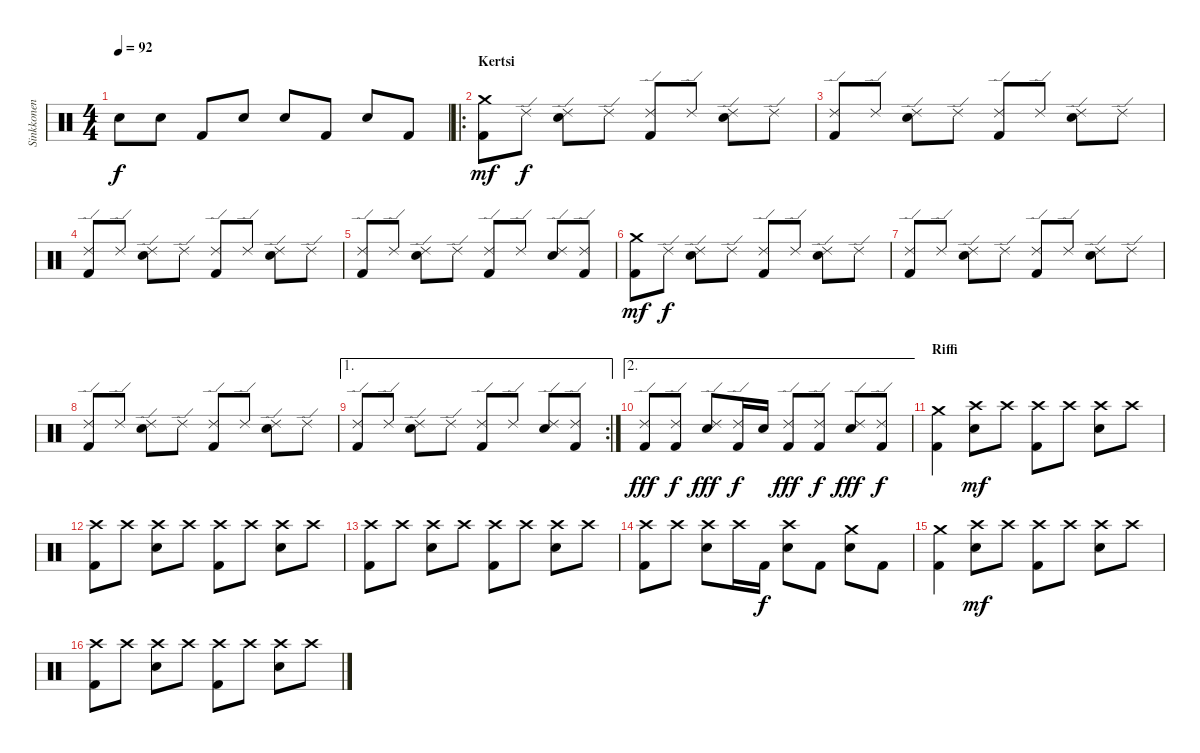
\track ("Sinkkonen" "Sinkkonen") {instrument percussion}
\staff {score}
\articulation defaults
\ts (4 4)
\tempo 92
\clef neutral
\ks c "Snare (hit) 2".8{dy f} "Snare (hit) 2".8 "Kick (hit) 2".8 "Snare (hit) 2".8 "Snare (hit) 2".8 "Kick (hit) 2".8 "Snare (hit) 2".8 "Kick (hit) 2".8
|
\ro
\section ("" "Kertsi")
("Kick (hit) 2" "Crash medium (hit)").8{dy mf} "Ride (edge) 2".8{dy f} ("Ride (edge) 2" "Snare (hit) 2").8 "Ride (edge) 2".8 ("Kick (hit) 2" "Ride (edge) 2").8 "Ride (edge) 2".8 ("Ride (edge) 2" "Snare (hit) 2").8 "Ride (edge) 2".8 |
("Kick (hit) 2" "Ride (edge) 2").8 "Ride (edge) 2".8 ("Ride (edge) 2" "Snare (hit) 2").8 "Ride (edge) 2".8 ("Kick (hit) 2" "Ride (edge) 2").8 "Ride (edge) 2".8 ("Ride (edge) 2" "Snare (hit) 2").8 "Ride (edge) 2".8 |
("Kick (hit) 2" "Ride (edge) 2").8 "Ride (edge) 2".8 ("Ride (edge) 2" "Snare (hit) 2").8 "Ride (edge) 2".8 ("Kick (hit) 2" "Ride (edge) 2").8 "Ride (edge) 2".8 ("Ride (edge) 2" "Snare (hit) 2").8 "Ride (edge) 2".8 |
("Kick (hit) 2" "Ride (edge) 2").8 "Ride (edge) 2".8 ("Ride (edge) 2" "Snare (hit) 2").8 "Ride (edge) 2".8 ("Kick (hit) 2" "Ride (edge) 2").8 "Ride (edge) 2".8 ("Ride (edge) 2" "Snare (hit) 2").8 ("Kick (hit) 2" "Ride (edge) 2").8 |
("Kick (hit) 2" "Crash medium (hit)").8{dy mf} "Ride (edge) 2".8{dy f} ("Ride (edge) 2" "Snare (hit) 2").8 "Ride (edge) 2".8 ("Kick (hit) 2" "Ride (edge) 2").8 "Ride (edge) 2".8 ("Ride (edge) 2" "Snare (hit) 2").8 "Ride (edge) 2".8 |
("Kick (hit) 2" "Ride (edge) 2").8 "Ride (edge) 2".8 ("Ride (edge) 2" "Snare (hit) 2").8 "Ride (edge) 2".8 ("Kick (hit) 2" "Ride (edge) 2").8 "Ride (edge) 2".8 ("Ride (edge) 2" "Snare (hit) 2").8 "Ride (edge) 2".8 |
("Kick (hit) 2" "Ride (edge) 2").8 "Ride (edge) 2".8 ("Ride (edge) 2" "Snare (hit) 2").8 "Ride (edge) 2".8 ("Kick (hit) 2" "Ride (edge) 2").8 "Ride (edge) 2".8 ("Ride (edge) 2" "Snare (hit) 2").8 "Ride (edge) 2".8 |
\ae 1
\rc 2
("Kick (hit) 2" "Ride (edge) 2").8 "Ride (edge) 2".8 ("Ride (edge) 2" "Snare (hit) 2").8 "Ride (edge) 2".8 ("Kick (hit) 2" "Ride (edge) 2").8 "Ride (edge) 2".8 ("Ride (edge) 2" "Snare (hit) 2").8 ("Kick (hit) 2" "Ride (edge) 2").8 |
\ae 2
("Kick (hit) 2" "Ride (edge) 2").8{dy fff} ("Kick (hit) 2" "Ride (edge) 2").8{dy f} ("Ride (edge) 2" "Snare (hit) 2").8{dy fff} ("Kick (hit) 2" "Ride (edge) 2").16{dy f} "Snare (hit) 2".16 ("Kick (hit) 2" "Ride (edge) 2").8{dy fff} ("Kick (hit) 2" "Ride (edge) 2").8{dy f} ("Ride (edge) 2" "Snare (hit) 2").8{dy fff} ("Kick (hit) 2" "Ride (edge) 2").8{dy f} |
\section ("" "Riffi")
("Kick (hit) 2" "Crash medium (hit)").4 ("Crash high (hit)" "Snare (hit) 2").8{dy mf} "Crash high (hit)".8 ("Kick (hit) 2" "Crash high (hit)").8 "Crash high (hit)".8 ("Crash high (hit)" "Snare (hit) 2").8 "Crash high (hit)".8 |
("Kick (hit) 2" "Crash high (hit)").8 "Crash high (hit)".8 ("Crash high (hit)" "Snare (hit) 2").8 "Crash high (hit)".8 ("Kick (hit) 2" "Crash high (hit)").8 "Crash high (hit)".8 ("Crash high (hit)" "Snare (hit) 2").8 "Crash high (hit)".8 |
("Kick (hit) 2" "Crash high (hit)").8 "Crash high (hit)".8 ("Crash high (hit)" "Snare (hit) 2").8 "Crash high (hit)".8 ("Kick (hit) 2" "Crash high (hit)").8 "Crash high (hit)".8 ("Crash high (hit)" "Snare (hit) 2").8 "Crash high (hit)".8 |
("Kick (hit) 2" "Crash high (hit)").8 "Crash high (hit)".8 ("Crash high (hit)" "Snare (hit) 2").8 "Crash high (hit)".16 "Kick (hit) 2".16{dy f} ("Crash high (hit)" "Snare (hit) 2").8 "Kick (hit) 2".8 ("Crash medium (hit)" "Snare (hit) 2").8 "Kick (hit) 2".8 |
("Kick (hit) 2" "Crash medium (hit)").4 ("Crash high (hit)" "Snare (hit) 2").8{dy mf} "Crash high (hit)".8 ("Kick (hit) 2" "Crash high (hit)").8 "Crash high (hit)".8 ("Crash high (hit)" "Snare (hit) 2").8 "Crash high (hit)".8 |
("Kick (hit) 2" "Crash high (hit)").8 "Crash high (hit)".8 ("Crash high (hit)" "Snare (hit) 2").8 "Crash high (hit)".8 ("Kick (hit) 2" "Crash high (hit)").8 "Crash high (hit)".8 ("Crash high (hit)" "Snare (hit) 2").8 "Crash high (hit)".8
